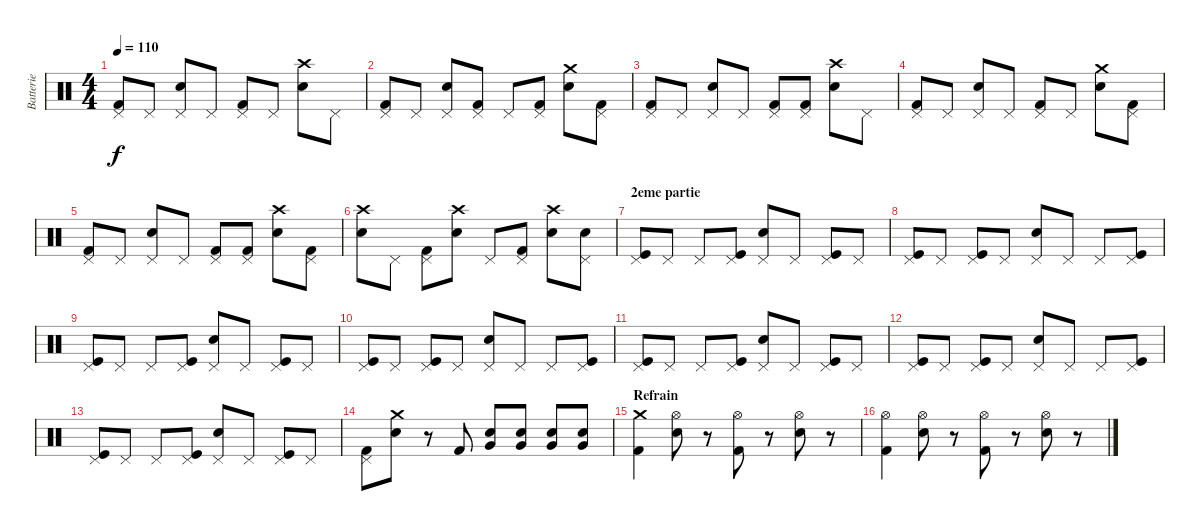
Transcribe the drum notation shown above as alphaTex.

\track ("Batterie" "Batterie") {instrument percussion}
\staff {score}
\articulation defaults
\ts (4 4)
\tempo 110
\clef neutral
\ks c
("Pedal Hi-Hat (hit)" "Kick (hit) 2").8{dy f} "Pedal Hi-Hat (hit)".8 ("Pedal Hi-Hat (hit)" "Electric Snare (hit)").8 "Pedal Hi-Hat (hit)".8 ("Pedal Hi-Hat (hit)" "Kick (hit) 2").8 "Pedal Hi-Hat (hit)".8 ("Crash high (hit)" "Electric Snare (hit)").8 "Pedal Hi-Hat (hit)".8 |
("Pedal Hi-Hat (hit)" "Kick (hit) 2").8 "Pedal Hi-Hat (hit)".8 ("Pedal Hi-Hat (hit)" "Electric Snare (hit)").8 ("Pedal Hi-Hat (hit)" "Kick (hit) 2").8 "Pedal Hi-Hat (hit)".8 ("Pedal Hi-Hat (hit)" "Kick (hit) 2").8 ("Crash medium (hit)" "Electric Snare (hit)").8 ("Pedal Hi-Hat (hit)" "Kick (hit) 2").8 |
("Pedal Hi-Hat (hit)" "Kick (hit) 2").8 "Pedal Hi-Hat (hit)".8 ("Pedal Hi-Hat (hit)" "Electric Snare (hit)").8 "Pedal Hi-Hat (hit)".8 ("Pedal Hi-Hat (hit)" "Kick (hit) 2").8 ("Pedal Hi-Hat (hit)" "Kick (hit) 2").8 ("Crash high (hit)" "Electric Snare (hit)").8 "Pedal Hi-Hat (hit)".8 |
("Pedal Hi-Hat (hit)" "Kick (hit) 2").8 "Pedal Hi-Hat (hit)".8 ("Pedal Hi-Hat (hit)" "Electric Snare (hit)").8 "Pedal Hi-Hat (hit)".8 ("Pedal Hi-Hat (hit)" "Kick (hit) 2").8 "Pedal Hi-Hat (hit)".8 ("Crash medium (hit)" "Electric Snare (hit)").8 ("Pedal Hi-Hat (hit)" "Kick (hit) 2").8 |
("Pedal Hi-Hat (hit)" "Kick (hit) 2").8 "Pedal Hi-Hat (hit)".8 ("Pedal Hi-Hat (hit)" "Electric Snare (hit)").8 "Pedal Hi-Hat (hit)".8 ("Pedal Hi-Hat (hit)" "Kick (hit) 2").8 ("Pedal Hi-Hat (hit)" "Kick (hit) 2").8 ("Crash high (hit)" "Electric Snare (hit)").8 ("Pedal Hi-Hat (hit)" "Kick (hit) 2").8 |
("Crash high (hit)" "Electric Snare (hit)").8 "Pedal Hi-Hat (hit)".8 ("Pedal Hi-Hat (hit)" "Kick (hit) 2").8 ("Crash high (hit)" "Electric Snare (hit)").8 "Pedal Hi-Hat (hit)".8 ("Pedal Hi-Hat (hit)" "Kick (hit) 2").8 ("Crash high (hit)" "Electric Snare (hit)").8 ("Pedal Hi-Hat (hit)" "Electric Snare (hit)").8 |
\section ("" "2eme partie")
("Pedal Hi-Hat (hit)" "Kick (hit)").8 "Pedal Hi-Hat (hit)".8 "Pedal Hi-Hat (hit)".8 ("Pedal Hi-Hat (hit)" "Kick (hit)").8 ("Pedal Hi-Hat (hit)" "Electric Snare (hit)").8 "Pedal Hi-Hat (hit)".8 ("Pedal Hi-Hat (hit)" "Kick (hit)").8 "Pedal Hi-Hat (hit)".8 |
("Pedal Hi-Hat (hit)" "Kick (hit)").8 "Pedal Hi-Hat (hit)".8 ("Pedal Hi-Hat (hit)" "Kick (hit)").8 "Pedal Hi-Hat (hit)".8 ("Pedal Hi-Hat (hit)" "Electric Snare (hit)").8 "Pedal Hi-Hat (hit)".8 "Pedal Hi-Hat (hit)".8 ("Pedal Hi-Hat (hit)" "Kick (hit)").8 |
("Pedal Hi-Hat (hit)" "Kick (hit)").8 "Pedal Hi-Hat (hit)".8 "Pedal Hi-Hat (hit)".8 ("Pedal Hi-Hat (hit)" "Kick (hit)").8 ("Pedal Hi-Hat (hit)" "Electric Snare (hit)").8 "Pedal Hi-Hat (hit)".8 ("Pedal Hi-Hat (hit)" "Kick (hit)").8 "Pedal Hi-Hat (hit)".8 |
("Pedal Hi-Hat (hit)" "Kick (hit)").8 "Pedal Hi-Hat (hit)".8 ("Pedal Hi-Hat (hit)" "Kick (hit)").8 "Pedal Hi-Hat (hit)".8 ("Pedal Hi-Hat (hit)" "Electric Snare (hit)").8 "Pedal Hi-Hat (hit)".8 "Pedal Hi-Hat (hit)".8 ("Pedal Hi-Hat (hit)" "Kick (hit)").8 |
("Pedal Hi-Hat (hit)" "Kick (hit)").8 "Pedal Hi-Hat (hit)".8 "Pedal Hi-Hat (hit)".8 ("Pedal Hi-Hat (hit)" "Kick (hit)").8 ("Pedal Hi-Hat (hit)" "Electric Snare (hit)").8 "Pedal Hi-Hat (hit)".8 ("Pedal Hi-Hat (hit)" "Kick (hit)").8 "Pedal Hi-Hat (hit)".8 |
("Pedal Hi-Hat (hit)" "Kick (hit)").8 "Pedal Hi-Hat (hit)".8 ("Pedal Hi-Hat (hit)" "Kick (hit)").8 "Pedal Hi-Hat (hit)".8 ("Pedal Hi-Hat (hit)" "Electric Snare (hit)").8 "Pedal Hi-Hat (hit)".8 "Pedal Hi-Hat (hit)".8 ("Pedal Hi-Hat (hit)" "Kick (hit)").8 |
("Pedal Hi-Hat (hit)" "Kick (hit)").8 "Pedal Hi-Hat (hit)".8 "Pedal Hi-Hat (hit)".8 ("Pedal Hi-Hat (hit)" "Kick (hit)").8 ("Pedal Hi-Hat (hit)" "Electric Snare (hit)").8 "Pedal Hi-Hat (hit)".8 ("Pedal Hi-Hat (hit)" "Kick (hit)").8 "Pedal Hi-Hat (hit)".8 |
("Pedal Hi-Hat (hit)" "Kick (hit) 2").8 ("Crash medium (hit)" "Electric Snare (hit)").8 r.8 "Kick (hit) 2".8 ("Very Low Tom (hit)" "Electric Snare (hit)").8 ("Very Low Tom (hit)" "Electric Snare (hit)").8 ("Very Low Tom (hit)" "Electric Snare (hit)").8 ("Very Low Tom (hit)" "Electric Snare (hit)").8 |
\section ("" "Refrain")
("Crash medium (hit)" "Kick (hit) 2").4 ("Hi-Hat (open)" "Electric Snare (hit)").8 r.8 ("Hi-Hat (open)" "Kick (hit) 2").8 r.8 ("Hi-Hat (open)" "Electric Snare (hit)").8 r.8 |
("Hi-Hat (open)" "Kick (hit) 2").4 ("Hi-Hat (open)" "Electric Snare (hit)").8 r.8 ("Hi-Hat (open)" "Kick (hit) 2").8 r.8 ("Hi-Hat (open)" "Electric Snare (hit)").8 r.8
